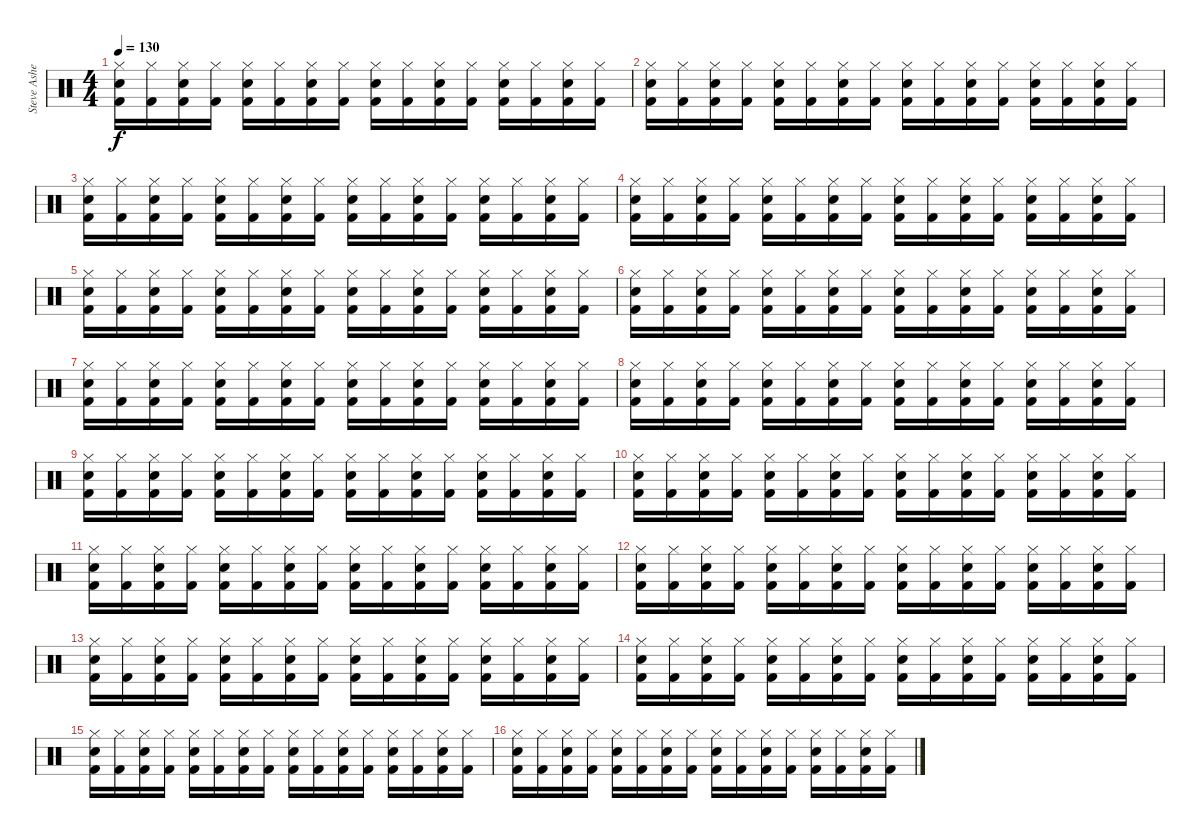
\track ("Steve Asheim" "Steve Ashe") {instrument percussion}
\staff {score}
\articulation defaults
\ts (4 4)
\tempo 130
\clef neutral
\ks c
("Kick (hit) 2" "Electric Snare (hit)" "Hi-Hat (closed)").16{dy f} ("Kick (hit) 2" "Hi-Hat (closed)").16 ("Kick (hit) 2" "Electric Snare (hit)" "Hi-Hat (closed)").16 ("Kick (hit) 2" "Hi-Hat (closed)").16 ("Kick (hit) 2" "Electric Snare (hit)" "Hi-Hat (closed)").16 ("Kick (hit) 2" "Hi-Hat (closed)").16 ("Kick (hit) 2" "Electric Snare (hit)" "Hi-Hat (closed)").16 ("Kick (hit) 2" "Hi-Hat (closed)").16 ("Kick (hit) 2" "Electric Snare (hit)" "Hi-Hat (closed)").16 ("Kick (hit) 2" "Hi-Hat (closed)").16 ("Kick (hit) 2" "Electric Snare (hit)" "Hi-Hat (closed)").16 ("Kick (hit) 2" "Hi-Hat (closed)").16 ("Kick (hit) 2" "Electric Snare (hit)" "Hi-Hat (closed)").16 ("Kick (hit) 2" "Hi-Hat (closed)").16 ("Kick (hit) 2" "Electric Snare (hit)" "Hi-Hat (closed)").16 ("Kick (hit) 2" "Hi-Hat (closed)").16 |
("Kick (hit) 2" "Electric Snare (hit)" "Hi-Hat (closed)").16 ("Kick (hit) 2" "Hi-Hat (closed)").16 ("Kick (hit) 2" "Electric Snare (hit)" "Hi-Hat (closed)").16 ("Kick (hit) 2" "Hi-Hat (closed)").16 ("Kick (hit) 2" "Electric Snare (hit)" "Hi-Hat (closed)").16 ("Kick (hit) 2" "Hi-Hat (closed)").16 ("Kick (hit) 2" "Electric Snare (hit)" "Hi-Hat (closed)").16 ("Kick (hit) 2" "Hi-Hat (closed)").16 ("Kick (hit) 2" "Electric Snare (hit)" "Hi-Hat (closed)").16 ("Kick (hit) 2" "Hi-Hat (closed)").16 ("Kick (hit) 2" "Electric Snare (hit)" "Hi-Hat (closed)").16 ("Kick (hit) 2" "Hi-Hat (closed)").16 ("Kick (hit) 2" "Electric Snare (hit)" "Hi-Hat (closed)").16 ("Kick (hit) 2" "Hi-Hat (closed)").16 ("Kick (hit) 2" "Electric Snare (hit)" "Hi-Hat (closed)").16 ("Kick (hit) 2" "Hi-Hat (closed)").16 |
("Kick (hit) 2" "Electric Snare (hit)" "Hi-Hat (closed)").16 ("Kick (hit) 2" "Hi-Hat (closed)").16 ("Kick (hit) 2" "Electric Snare (hit)" "Hi-Hat (closed)").16 ("Kick (hit) 2" "Hi-Hat (closed)").16 ("Kick (hit) 2" "Electric Snare (hit)" "Hi-Hat (closed)").16 ("Kick (hit) 2" "Hi-Hat (closed)").16 ("Kick (hit) 2" "Electric Snare (hit)" "Hi-Hat (closed)").16 ("Kick (hit) 2" "Hi-Hat (closed)").16 ("Kick (hit) 2" "Electric Snare (hit)" "Hi-Hat (closed)").16 ("Kick (hit) 2" "Hi-Hat (closed)").16 ("Kick (hit) 2" "Electric Snare (hit)" "Hi-Hat (closed)").16 ("Kick (hit) 2" "Hi-Hat (closed)").16 ("Kick (hit) 2" "Electric Snare (hit)" "Hi-Hat (closed)").16 ("Kick (hit) 2" "Hi-Hat (closed)").16 ("Kick (hit) 2" "Electric Snare (hit)" "Hi-Hat (closed)").16 ("Kick (hit) 2" "Hi-Hat (closed)").16 |
("Kick (hit) 2" "Electric Snare (hit)" "Hi-Hat (closed)").16 ("Kick (hit) 2" "Hi-Hat (closed)").16 ("Kick (hit) 2" "Electric Snare (hit)" "Hi-Hat (closed)").16 ("Kick (hit) 2" "Hi-Hat (closed)").16 ("Kick (hit) 2" "Electric Snare (hit)" "Hi-Hat (closed)").16 ("Kick (hit) 2" "Hi-Hat (closed)").16 ("Kick (hit) 2" "Electric Snare (hit)" "Hi-Hat (closed)").16 ("Kick (hit) 2" "Hi-Hat (closed)").16 ("Kick (hit) 2" "Electric Snare (hit)" "Hi-Hat (closed)").16 ("Kick (hit) 2" "Hi-Hat (closed)").16 ("Kick (hit) 2" "Electric Snare (hit)" "Hi-Hat (closed)").16 ("Kick (hit) 2" "Hi-Hat (closed)").16 ("Kick (hit) 2" "Electric Snare (hit)" "Hi-Hat (closed)").16 ("Kick (hit) 2" "Hi-Hat (closed)").16 ("Kick (hit) 2" "Electric Snare (hit)" "Hi-Hat (closed)").16 ("Kick (hit) 2" "Hi-Hat (closed)").16 |
("Kick (hit) 2" "Electric Snare (hit)" "Hi-Hat (closed)").16 ("Kick (hit) 2" "Hi-Hat (closed)").16 ("Kick (hit) 2" "Electric Snare (hit)" "Hi-Hat (closed)").16 ("Kick (hit) 2" "Hi-Hat (closed)").16 ("Kick (hit) 2" "Electric Snare (hit)" "Hi-Hat (closed)").16 ("Kick (hit) 2" "Hi-Hat (closed)").16 ("Kick (hit) 2" "Electric Snare (hit)" "Hi-Hat (closed)").16 ("Kick (hit) 2" "Hi-Hat (closed)").16 ("Kick (hit) 2" "Electric Snare (hit)" "Hi-Hat (closed)").16 ("Kick (hit) 2" "Hi-Hat (closed)").16 ("Kick (hit) 2" "Electric Snare (hit)" "Hi-Hat (closed)").16 ("Kick (hit) 2" "Hi-Hat (closed)").16 ("Kick (hit) 2" "Electric Snare (hit)" "Hi-Hat (closed)").16 ("Kick (hit) 2" "Hi-Hat (closed)").16 ("Kick (hit) 2" "Electric Snare (hit)" "Hi-Hat (closed)").16 ("Kick (hit) 2" "Hi-Hat (closed)").16 |
("Kick (hit) 2" "Electric Snare (hit)" "Hi-Hat (closed)").16 ("Kick (hit) 2" "Hi-Hat (closed)").16 ("Kick (hit) 2" "Electric Snare (hit)" "Hi-Hat (closed)").16 ("Kick (hit) 2" "Hi-Hat (closed)").16 ("Kick (hit) 2" "Electric Snare (hit)" "Hi-Hat (closed)").16 ("Kick (hit) 2" "Hi-Hat (closed)").16 ("Kick (hit) 2" "Electric Snare (hit)" "Hi-Hat (closed)").16 ("Kick (hit) 2" "Hi-Hat (closed)").16 ("Kick (hit) 2" "Electric Snare (hit)" "Hi-Hat (closed)").16 ("Kick (hit) 2" "Hi-Hat (closed)").16 ("Kick (hit) 2" "Electric Snare (hit)" "Hi-Hat (closed)").16 ("Kick (hit) 2" "Hi-Hat (closed)").16 ("Kick (hit) 2" "Electric Snare (hit)" "Hi-Hat (closed)").16 ("Kick (hit) 2" "Hi-Hat (closed)").16 ("Kick (hit) 2" "Electric Snare (hit)" "Hi-Hat (closed)").16 ("Kick (hit) 2" "Hi-Hat (closed)").16 |
("Kick (hit) 2" "Electric Snare (hit)" "Hi-Hat (closed)").16 ("Kick (hit) 2" "Hi-Hat (closed)").16 ("Kick (hit) 2" "Electric Snare (hit)" "Hi-Hat (closed)").16 ("Kick (hit) 2" "Hi-Hat (closed)").16 ("Kick (hit) 2" "Electric Snare (hit)" "Hi-Hat (closed)").16 ("Kick (hit) 2" "Hi-Hat (closed)").16 ("Kick (hit) 2" "Electric Snare (hit)" "Hi-Hat (closed)").16 ("Kick (hit) 2" "Hi-Hat (closed)").16 ("Kick (hit) 2" "Electric Snare (hit)" "Hi-Hat (closed)").16 ("Kick (hit) 2" "Hi-Hat (closed)").16 ("Kick (hit) 2" "Electric Snare (hit)" "Hi-Hat (closed)").16 ("Kick (hit) 2" "Hi-Hat (closed)").16 ("Kick (hit) 2" "Electric Snare (hit)" "Hi-Hat (closed)").16 ("Kick (hit) 2" "Hi-Hat (closed)").16 ("Kick (hit) 2" "Electric Snare (hit)" "Hi-Hat (closed)").16 ("Kick (hit) 2" "Hi-Hat (closed)").16 |
("Kick (hit) 2" "Electric Snare (hit)" "Hi-Hat (closed)").16 ("Kick (hit) 2" "Hi-Hat (closed)").16 ("Kick (hit) 2" "Electric Snare (hit)" "Hi-Hat (closed)").16 ("Kick (hit) 2" "Hi-Hat (closed)").16 ("Kick (hit) 2" "Electric Snare (hit)" "Hi-Hat (closed)").16 ("Kick (hit) 2" "Hi-Hat (closed)").16 ("Kick (hit) 2" "Electric Snare (hit)" "Hi-Hat (closed)").16 ("Kick (hit) 2" "Hi-Hat (closed)").16 ("Kick (hit) 2" "Electric Snare (hit)" "Hi-Hat (closed)").16 ("Kick (hit) 2" "Hi-Hat (closed)").16 ("Kick (hit) 2" "Electric Snare (hit)" "Hi-Hat (closed)").16 ("Kick (hit) 2" "Hi-Hat (closed)").16 ("Kick (hit) 2" "Electric Snare (hit)" "Hi-Hat (closed)").16 ("Kick (hit) 2" "Hi-Hat (closed)").16 ("Kick (hit) 2" "Electric Snare (hit)" "Hi-Hat (closed)").16 ("Kick (hit) 2" "Hi-Hat (closed)").16 |
("Kick (hit) 2" "Electric Snare (hit)" "Hi-Hat (closed)").16 ("Kick (hit) 2" "Hi-Hat (closed)").16 ("Kick (hit) 2" "Electric Snare (hit)" "Hi-Hat (closed)").16 ("Kick (hit) 2" "Hi-Hat (closed)").16 ("Kick (hit) 2" "Electric Snare (hit)" "Hi-Hat (closed)").16 ("Kick (hit) 2" "Hi-Hat (closed)").16 ("Kick (hit) 2" "Electric Snare (hit)" "Hi-Hat (closed)").16 ("Kick (hit) 2" "Hi-Hat (closed)").16 ("Kick (hit) 2" "Electric Snare (hit)" "Hi-Hat (closed)").16 ("Kick (hit) 2" "Hi-Hat (closed)").16 ("Kick (hit) 2" "Electric Snare (hit)" "Hi-Hat (closed)").16 ("Kick (hit) 2" "Hi-Hat (closed)").16 ("Kick (hit) 2" "Electric Snare (hit)" "Hi-Hat (closed)").16 ("Kick (hit) 2" "Hi-Hat (closed)").16 ("Kick (hit) 2" "Electric Snare (hit)" "Hi-Hat (closed)").16 ("Kick (hit) 2" "Hi-Hat (closed)").16 |
("Kick (hit) 2" "Electric Snare (hit)" "Hi-Hat (closed)").16 ("Kick (hit) 2" "Hi-Hat (closed)").16 ("Kick (hit) 2" "Electric Snare (hit)" "Hi-Hat (closed)").16 ("Kick (hit) 2" "Hi-Hat (closed)").16 ("Kick (hit) 2" "Electric Snare (hit)" "Hi-Hat (closed)").16 ("Kick (hit) 2" "Hi-Hat (closed)").16 ("Kick (hit) 2" "Electric Snare (hit)" "Hi-Hat (closed)").16 ("Kick (hit) 2" "Hi-Hat (closed)").16 ("Kick (hit) 2" "Electric Snare (hit)" "Hi-Hat (closed)").16 ("Kick (hit) 2" "Hi-Hat (closed)").16 ("Kick (hit) 2" "Electric Snare (hit)" "Hi-Hat (closed)").16 ("Kick (hit) 2" "Hi-Hat (closed)").16 ("Kick (hit) 2" "Electric Snare (hit)" "Hi-Hat (closed)").16 ("Kick (hit) 2" "Hi-Hat (closed)").16 ("Kick (hit) 2" "Electric Snare (hit)" "Hi-Hat (closed)").16 ("Kick (hit) 2" "Hi-Hat (closed)").16 |
("Kick (hit) 2" "Electric Snare (hit)" "Hi-Hat (closed)").16 ("Kick (hit) 2" "Hi-Hat (closed)").16 ("Kick (hit) 2" "Electric Snare (hit)" "Hi-Hat (closed)").16 ("Kick (hit) 2" "Hi-Hat (closed)").16 ("Kick (hit) 2" "Electric Snare (hit)" "Hi-Hat (closed)").16 ("Kick (hit) 2" "Hi-Hat (closed)").16 ("Kick (hit) 2" "Electric Snare (hit)" "Hi-Hat (closed)").16 ("Kick (hit) 2" "Hi-Hat (closed)").16 ("Kick (hit) 2" "Electric Snare (hit)" "Hi-Hat (closed)").16 ("Kick (hit) 2" "Hi-Hat (closed)").16 ("Kick (hit) 2" "Electric Snare (hit)" "Hi-Hat (closed)").16 ("Kick (hit) 2" "Hi-Hat (closed)").16 ("Kick (hit) 2" "Electric Snare (hit)" "Hi-Hat (closed)").16 ("Kick (hit) 2" "Hi-Hat (closed)").16 ("Kick (hit) 2" "Electric Snare (hit)" "Hi-Hat (closed)").16 ("Kick (hit) 2" "Hi-Hat (closed)").16 |
("Kick (hit) 2" "Electric Snare (hit)" "Hi-Hat (closed)").16 ("Kick (hit) 2" "Hi-Hat (closed)").16 ("Kick (hit) 2" "Electric Snare (hit)" "Hi-Hat (closed)").16 ("Kick (hit) 2" "Hi-Hat (closed)").16 ("Kick (hit) 2" "Electric Snare (hit)" "Hi-Hat (closed)").16 ("Kick (hit) 2" "Hi-Hat (closed)").16 ("Kick (hit) 2" "Electric Snare (hit)" "Hi-Hat (closed)").16 ("Kick (hit) 2" "Hi-Hat (closed)").16 ("Kick (hit) 2" "Electric Snare (hit)" "Hi-Hat (closed)").16 ("Kick (hit) 2" "Hi-Hat (closed)").16 ("Kick (hit) 2" "Electric Snare (hit)" "Hi-Hat (closed)").16 ("Kick (hit) 2" "Hi-Hat (closed)").16 ("Kick (hit) 2" "Electric Snare (hit)" "Hi-Hat (closed)").16 ("Kick (hit) 2" "Hi-Hat (closed)").16 ("Kick (hit) 2" "Electric Snare (hit)" "Hi-Hat (closed)").16 ("Kick (hit) 2" "Hi-Hat (closed)").16 |
("Kick (hit) 2" "Electric Snare (hit)" "Hi-Hat (closed)").16 ("Kick (hit) 2" "Hi-Hat (closed)").16 ("Kick (hit) 2" "Electric Snare (hit)" "Hi-Hat (closed)").16 ("Kick (hit) 2" "Hi-Hat (closed)").16 ("Kick (hit) 2" "Electric Snare (hit)" "Hi-Hat (closed)").16 ("Kick (hit) 2" "Hi-Hat (closed)").16 ("Kick (hit) 2" "Electric Snare (hit)" "Hi-Hat (closed)").16 ("Kick (hit) 2" "Hi-Hat (closed)").16 ("Kick (hit) 2" "Electric Snare (hit)" "Hi-Hat (closed)").16 ("Kick (hit) 2" "Hi-Hat (closed)").16 ("Kick (hit) 2" "Electric Snare (hit)" "Hi-Hat (closed)").16 ("Kick (hit) 2" "Hi-Hat (closed)").16 ("Kick (hit) 2" "Electric Snare (hit)" "Hi-Hat (closed)").16 ("Kick (hit) 2" "Hi-Hat (closed)").16 ("Kick (hit) 2" "Electric Snare (hit)" "Hi-Hat (closed)").16 ("Kick (hit) 2" "Hi-Hat (closed)").16 |
("Kick (hit) 2" "Electric Snare (hit)" "Hi-Hat (closed)").16 ("Kick (hit) 2" "Hi-Hat (closed)").16 ("Kick (hit) 2" "Electric Snare (hit)" "Hi-Hat (closed)").16 ("Kick (hit) 2" "Hi-Hat (closed)").16 ("Kick (hit) 2" "Electric Snare (hit)" "Hi-Hat (closed)").16 ("Kick (hit) 2" "Hi-Hat (closed)").16 ("Kick (hit) 2" "Electric Snare (hit)" "Hi-Hat (closed)").16 ("Kick (hit) 2" "Hi-Hat (closed)").16 ("Kick (hit) 2" "Electric Snare (hit)" "Hi-Hat (closed)").16 ("Kick (hit) 2" "Hi-Hat (closed)").16 ("Kick (hit) 2" "Electric Snare (hit)" "Hi-Hat (closed)").16 ("Kick (hit) 2" "Hi-Hat (closed)").16 ("Kick (hit) 2" "Electric Snare (hit)" "Hi-Hat (closed)").16 ("Kick (hit) 2" "Hi-Hat (closed)").16 ("Kick (hit) 2" "Electric Snare (hit)" "Hi-Hat (closed)").16 ("Kick (hit) 2" "Hi-Hat (closed)").16 |
("Kick (hit) 2" "Electric Snare (hit)" "Hi-Hat (closed)").16 ("Kick (hit) 2" "Hi-Hat (closed)").16 ("Kick (hit) 2" "Electric Snare (hit)" "Hi-Hat (closed)").16 ("Kick (hit) 2" "Hi-Hat (closed)").16 ("Kick (hit) 2" "Electric Snare (hit)" "Hi-Hat (closed)").16 ("Kick (hit) 2" "Hi-Hat (closed)").16 ("Kick (hit) 2" "Electric Snare (hit)" "Hi-Hat (closed)").16 ("Kick (hit) 2" "Hi-Hat (closed)").16 ("Kick (hit) 2" "Electric Snare (hit)" "Hi-Hat (closed)").16 ("Kick (hit) 2" "Hi-Hat (closed)").16 ("Kick (hit) 2" "Electric Snare (hit)" "Hi-Hat (closed)").16 ("Kick (hit) 2" "Hi-Hat (closed)").16 ("Kick (hit) 2" "Electric Snare (hit)" "Hi-Hat (closed)").16 ("Kick (hit) 2" "Hi-Hat (closed)").16 ("Kick (hit) 2" "Electric Snare (hit)" "Hi-Hat (closed)").16 ("Kick (hit) 2" "Hi-Hat (closed)").16 |
("Kick (hit) 2" "Electric Snare (hit)" "Hi-Hat (closed)").16 ("Kick (hit) 2" "Hi-Hat (closed)").16 ("Kick (hit) 2" "Electric Snare (hit)" "Hi-Hat (closed)").16 ("Kick (hit) 2" "Hi-Hat (closed)").16 ("Kick (hit) 2" "Electric Snare (hit)" "Hi-Hat (closed)").16 ("Kick (hit) 2" "Hi-Hat (closed)").16 ("Kick (hit) 2" "Electric Snare (hit)" "Hi-Hat (closed)").16 ("Kick (hit) 2" "Hi-Hat (closed)").16 ("Kick (hit) 2" "Electric Snare (hit)" "Hi-Hat (closed)").16 ("Kick (hit) 2" "Hi-Hat (closed)").16 ("Kick (hit) 2" "Electric Snare (hit)" "Hi-Hat (closed)").16 ("Kick (hit) 2" "Hi-Hat (closed)").16 ("Kick (hit) 2" "Electric Snare (hit)" "Hi-Hat (closed)").16 ("Kick (hit) 2" "Hi-Hat (closed)").16 ("Kick (hit) 2" "Electric Snare (hit)" "Hi-Hat (closed)").16 ("Kick (hit) 2" "Hi-Hat (closed)").16
